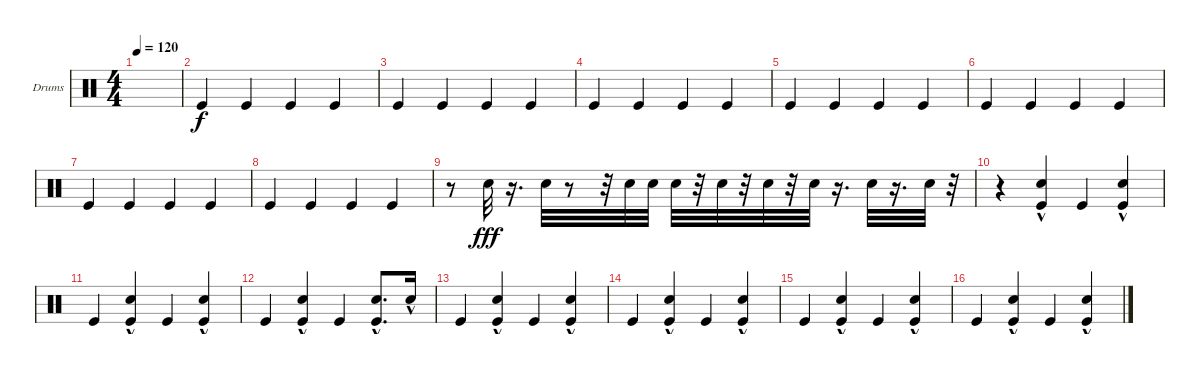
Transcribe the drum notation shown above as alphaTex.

\defaultSystemsLayout 4
\bracketExtendMode nobrackets
\firstSystemTrackNameOrientation horizontal
\otherSystemsTrackNameOrientation horizontal
\track ("Drumkit" "Drums") {instrument percussion}
\staff {score}
\articulation defaults
\ts (4 4)
\tempo 120
\clef neutral
\ks c
|
"Kick (hit)".4 "Kick (hit)".4 "Kick (hit)".4 "Kick (hit)".4 |
"Kick (hit)".4 "Kick (hit)".4 "Kick (hit)".4 "Kick (hit)".4 |
"Kick (hit)".4 "Kick (hit)".4 "Kick (hit)".4 "Kick (hit)".4 |
"Kick (hit)".4 "Kick (hit)".4 "Kick (hit)".4 "Kick (hit)".4 |
"Kick (hit)".4 "Kick (hit)".4 "Kick (hit)".4 "Kick (hit)".4 |
"Kick (hit)".4 "Kick (hit)".4 "Kick (hit)".4 "Kick (hit)".4 |
"Kick (hit)".4 "Kick (hit)".4 "Kick (hit)".4 "Kick (hit)".4 |
\scale
0.474178 r.8 "Snare (hit) 2".32{dy fff} r.16{d} "Snare (hit) 2".32 r.8 r.32 "Snare (hit) 2".32 "Snare (hit) 2".32 "Snare (hit) 2".32 r.32 "Snare (hit) 2".32 r.32 "Snare (hit) 2".32 r.32 "Snare (hit) 2".32 r.16{d} "Snare (hit) 2".32 r.16{d} "Snare (hit) 2".32 r.32 |
\scale
0.262911 r.4 ("Kick (hit)" "Snare (hit) 2"{hac}).4 "Kick (hit)".4 ("Kick (hit)" "Snare (hit) 2"{hac}).4 |
\scale
0.262911 "Kick (hit)".4 ("Kick (hit)" "Snare (hit) 2"{hac}).4 "Kick (hit)".4 ("Kick (hit)" "Snare (hit) 2"{hac}).4 |
\scale
0.333333 "Kick (hit)".4 ("Kick (hit)" "Snare (hit) 2"{hac}).4 "Kick (hit)".4 ("Kick (hit)" "Snare (hit) 2"{hac}).8{d} "Snare (hit) 2"{hac}.16 |
\scale
0.333333 "Kick (hit)".4 ("Kick (hit)" "Snare (hit) 2"{hac}).4 "Kick (hit)".4 ("Kick (hit)" "Snare (hit) 2"{hac}).4 |
\scale
0.333333 "Kick (hit)".4 ("Kick (hit)" "Snare (hit) 2"{hac}).4 "Kick (hit)".4 ("Kick (hit)" "Snare (hit) 2"{hac}).4 |
\scale
0.333333 "Kick (hit)".4 ("Kick (hit)" "Snare (hit) 2"{hac}).4 "Kick (hit)".4 ("Kick (hit)" "Snare (hit) 2"{hac}).4 |
\scale
0.333333 "Kick (hit)".4 ("Kick (hit)" "Snare (hit) 2"{hac}).4 "Kick (hit)".4 ("Kick (hit)" "Snare (hit) 2"{hac}).4
